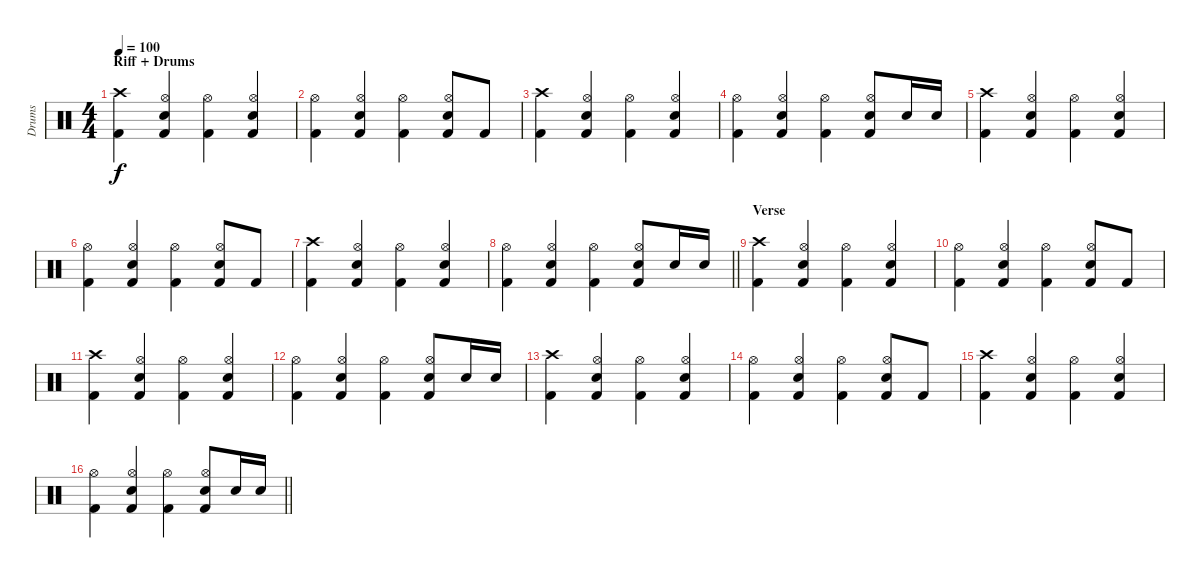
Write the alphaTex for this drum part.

\track ("Drums" "Drums") {instrument percussion}
\staff {score}
\articulation defaults
\ts (4 4)
\section ("" "Riff + Drums")
\tempo 100
\clef neutral
\ks c
("Crash high (hit)" "Kick (hit) 2").4{dy f} ("Hi-Hat (open)" "Snare (hit) 2" "Kick (hit) 2").4 ("Hi-Hat (open)" "Kick (hit) 2").4 ("Hi-Hat (open)" "Snare (hit) 2" "Kick (hit) 2").4 |
("Hi-Hat (open)" "Kick (hit) 2").4 ("Hi-Hat (open)" "Snare (hit) 2" "Kick (hit) 2").4 ("Hi-Hat (open)" "Kick (hit) 2").4 ("Hi-Hat (open)" "Snare (hit) 2" "Kick (hit) 2").8 "Kick (hit) 2".8 |
("Crash high (hit)" "Kick (hit) 2").4 ("Hi-Hat (open)" "Snare (hit) 2" "Kick (hit) 2").4 ("Hi-Hat (open)" "Kick (hit) 2").4 ("Hi-Hat (open)" "Snare (hit) 2" "Kick (hit) 2").4 |
("Hi-Hat (open)" "Kick (hit) 2").4 ("Hi-Hat (open)" "Snare (hit) 2" "Kick (hit) 2").4 ("Hi-Hat (open)" "Kick (hit) 2").4 ("Hi-Hat (open)" "Snare (hit) 2" "Kick (hit) 2").8 "Snare (hit) 2".16 "Snare (hit) 2".16 |
("Crash high (hit)" "Kick (hit) 2").4 ("Hi-Hat (open)" "Snare (hit) 2" "Kick (hit) 2").4 ("Hi-Hat (open)" "Kick (hit) 2").4 ("Hi-Hat (open)" "Snare (hit) 2" "Kick (hit) 2").4 |
("Hi-Hat (open)" "Kick (hit) 2").4 ("Hi-Hat (open)" "Snare (hit) 2" "Kick (hit) 2").4 ("Hi-Hat (open)" "Kick (hit) 2").4 ("Hi-Hat (open)" "Snare (hit) 2" "Kick (hit) 2").8 "Kick (hit) 2".8 |
("Crash high (hit)" "Kick (hit) 2").4 ("Hi-Hat (open)" "Snare (hit) 2" "Kick (hit) 2").4 ("Hi-Hat (open)" "Kick (hit) 2").4 ("Hi-Hat (open)" "Snare (hit) 2" "Kick (hit) 2").4 |
\barLineRight lightlight
("Hi-Hat (open)" "Kick (hit) 2").4 ("Hi-Hat (open)" "Snare (hit) 2" "Kick (hit) 2").4 ("Hi-Hat (open)" "Kick (hit) 2").4 ("Hi-Hat (open)" "Snare (hit) 2" "Kick (hit) 2").8 "Snare (hit) 2".16 "Snare (hit) 2".16 |
\section ("" "Verse")
("Crash high (hit)" "Kick (hit) 2").4 ("Hi-Hat (open)" "Snare (hit) 2" "Kick (hit) 2").4 ("Hi-Hat (open)" "Kick (hit) 2").4 ("Hi-Hat (open)" "Snare (hit) 2" "Kick (hit) 2").4 |
("Hi-Hat (open)" "Kick (hit) 2").4 ("Hi-Hat (open)" "Snare (hit) 2" "Kick (hit) 2").4 ("Hi-Hat (open)" "Kick (hit) 2").4 ("Hi-Hat (open)" "Snare (hit) 2" "Kick (hit) 2").8 "Kick (hit) 2".8 |
("Crash high (hit)" "Kick (hit) 2").4 ("Hi-Hat (open)" "Snare (hit) 2" "Kick (hit) 2").4 ("Hi-Hat (open)" "Kick (hit) 2").4 ("Hi-Hat (open)" "Snare (hit) 2" "Kick (hit) 2").4 |
("Hi-Hat (open)" "Kick (hit) 2").4 ("Hi-Hat (open)" "Snare (hit) 2" "Kick (hit) 2").4 ("Hi-Hat (open)" "Kick (hit) 2").4 ("Hi-Hat (open)" "Snare (hit) 2" "Kick (hit) 2").8 "Snare (hit) 2".16 "Snare (hit) 2".16 |
("Crash high (hit)" "Kick (hit) 2").4 ("Hi-Hat (open)" "Snare (hit) 2" "Kick (hit) 2").4 ("Hi-Hat (open)" "Kick (hit) 2").4 ("Hi-Hat (open)" "Snare (hit) 2" "Kick (hit) 2").4 |
("Hi-Hat (open)" "Kick (hit) 2").4 ("Hi-Hat (open)" "Snare (hit) 2" "Kick (hit) 2").4 ("Hi-Hat (open)" "Kick (hit) 2").4 ("Hi-Hat (open)" "Snare (hit) 2" "Kick (hit) 2").8 "Kick (hit) 2".8 |
("Crash high (hit)" "Kick (hit) 2").4 ("Hi-Hat (open)" "Snare (hit) 2" "Kick (hit) 2").4 ("Hi-Hat (open)" "Kick (hit) 2").4 ("Hi-Hat (open)" "Snare (hit) 2" "Kick (hit) 2").4 |
\barLineRight lightlight
("Hi-Hat (open)" "Kick (hit) 2").4 ("Hi-Hat (open)" "Snare (hit) 2" "Kick (hit) 2").4 ("Hi-Hat (open)" "Kick (hit) 2").4 ("Hi-Hat (open)" "Snare (hit) 2" "Kick (hit) 2").8 "Snare (hit) 2".16 "Snare (hit) 2".16
